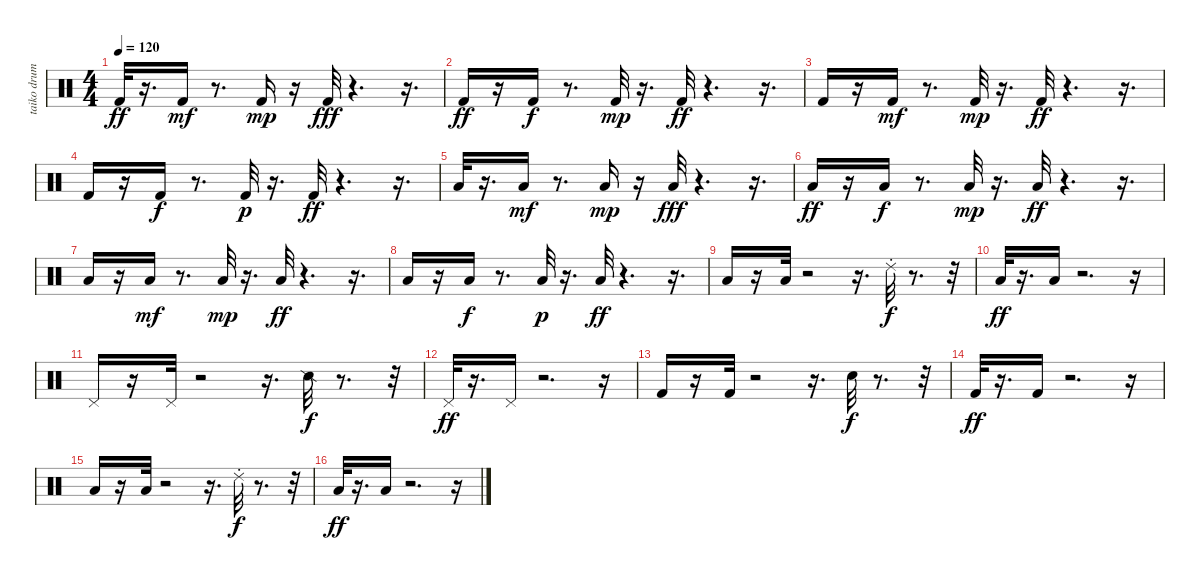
\track ("taiko drum" "taiko drum") {instrument percussion}
\staff {score}
\articulation defaults
\ts (4 4)
\tempo 120
\clef neutral
\ks c "Kick (hit) 2".32{dy ff}
r.16{d} "Kick (hit) 2".16{dy mf} r.8{d} "Kick (hit) 2".16{dy mp} r.16 "Kick (hit) 2".32{dy fff} r.4{d} r.16{d} |
"Kick (hit) 2".16{dy ff} r.16 "Kick (hit) 2".16{dy f} r.8{d} "Kick (hit) 2".32{dy mp} r.16{d} "Kick (hit) 2".32{dy ff} r.4{d} r.16{d} |
"Kick (hit) 2".16 r.16 "Kick (hit) 2".16{dy mf} r.8{d} "Kick (hit) 2".32{dy mp} r.16{d} "Kick (hit) 2".32{dy ff} r.4{d} r.16{d} |
"Kick (hit) 2".16 r.16 "Kick (hit) 2".16{dy f} r.8{d} "Kick (hit) 2".32{dy p} r.16{d} "Kick (hit) 2".32{dy ff} r.4{d} r.16{d} |
"Low Floor Tom (hit)".32 r.16{d} "Low Floor Tom (hit)".16{dy mf} r.8{d} "Low Floor Tom (hit)".16{dy mp} r.16 "Low Floor Tom (hit)".32{dy fff} r.4{d} r.16{d} |
"Low Floor Tom (hit)".16{dy ff} r.16 "Low Floor Tom (hit)".16{dy f} r.8{d} "Low Floor Tom (hit)".32{dy mp} r.16{d} "Low Floor Tom (hit)".32{dy ff} r.4{d} r.16{d} |
"Low Floor Tom (hit)".16 r.16 "Low Floor Tom (hit)".16{dy mf} r.8{d} "Low Floor Tom (hit)".32{dy mp} r.16{d} "Low Floor Tom (hit)".32{dy ff} r.4{d} r.16{d} |
"Low Floor Tom (hit)".16 r.16 "Low Floor Tom (hit)".16{dy f} r.8{d} "Low Floor Tom (hit)".32{dy p} r.16{d} "Low Floor Tom (hit)".32{dy ff} r.4{d} r.16{d} |
"Low Floor Tom (hit)".16 r.16 "Low Floor Tom (hit)".32 r.2 r.16{d} "Ride (choke) 2".32{dy f} r.8{d} r.32 |
"Low Floor Tom (hit)".32{dy ff} r.16{d} "Low Floor Tom (hit)".16 r.2{d} r.16 |
"Pedal Hi-Hat (hit)".16 r.16 "Pedal Hi-Hat (hit)".32 r.2 r.16{d} "Snare (side stick) 2".32{dy f} r.8{d} r.32 |
"Pedal Hi-Hat (hit)".32{dy ff} r.16{d} "Pedal Hi-Hat (hit)".16 r.2{d} r.16 |
"Kick (hit) 2".16 r.16 "Kick (hit) 2".32 r.2 r.16{d} "Snare (hit)".32{dy f} r.8{d} r.32 |
"Kick (hit) 2".32{dy ff} r.16{d} "Kick (hit) 2".16 r.2{d} r.16 |
"Low Floor Tom (hit)".16 r.16 "Low Floor Tom (hit)".32 r.2 r.16{d} "Ride (choke) 2".32{dy f} r.8{d} r.32 |
"Low Floor Tom (hit)".32{dy ff} r.16{d} "Low Floor Tom (hit)".16 r.2{d} r.16
